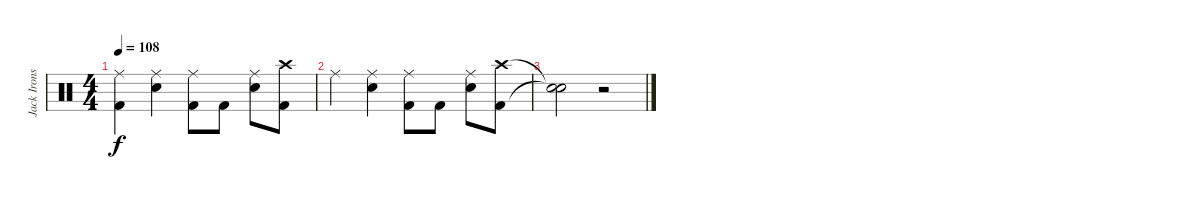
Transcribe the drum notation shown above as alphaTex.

\track ("Jack Irons" "Jack Irons") {instrument percussion}
\staff {score}
\articulation defaults
\ts (4 4)
\tempo 108
\clef neutral
\ks c
("Kick (hit) 2" "Ride (middle)").4{dy f} ("Electric Snare (hit)" "Ride (middle)").4 ("Kick (hit) 2" "Ride (middle)").8 "Kick (hit) 2".8 ("Electric Snare (hit)" "Ride (middle)").8 ("Kick (hit) 2" "Crash high (hit)").8 |
"Ride (middle)".4 ("Electric Snare (hit)" "Ride (middle)").4 ("Kick (hit) 2" "Ride (middle)").8 "Kick (hit) 2".8 ("Electric Snare (hit)" "Ride (middle)").8 ("Kick (hit) 2" "Crash high (hit)").8 |
("Snare (hit)"{t} "Snare (hit)"{t}).2 r.2
